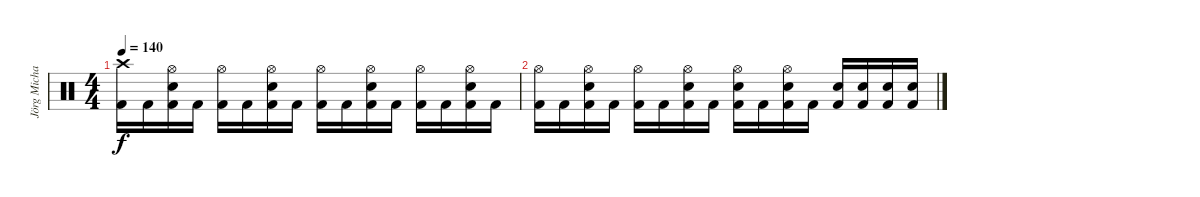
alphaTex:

\track ("Jörg Michael" "Jörg Micha") {instrument percussion}
\staff {score}
\articulation defaults
\ts (4 4)
\tempo 140
\clef neutral
\ks c
("Crash high (hit)" "Kick (hit) 2").16{dy f} "Kick (hit) 2".16 ("Electric Snare (hit)" "Kick (hit) 2" "Hi-Hat (open)").16 "Kick (hit) 2".16 ("Kick (hit) 2" "Hi-Hat (open)").16 "Kick (hit) 2".16 ("Electric Snare (hit)" "Kick (hit) 2" "Hi-Hat (open)").16 "Kick (hit) 2".16 ("Kick (hit) 2" "Hi-Hat (open)").16 "Kick (hit) 2".16 ("Electric Snare (hit)" "Kick (hit) 2" "Hi-Hat (open)").16 "Kick (hit) 2".16 ("Kick (hit) 2" "Hi-Hat (open)").16 "Kick (hit) 2".16 ("Electric Snare (hit)" "Kick (hit) 2" "Hi-Hat (open)").16 "Kick (hit) 2".16 |
("Hi-Hat (open)" "Kick (hit) 2").16 "Kick (hit) 2".16 ("Electric Snare (hit)" "Kick (hit) 2" "Hi-Hat (open)").16 "Kick (hit) 2".16 ("Kick (hit) 2" "Hi-Hat (open)").16 "Kick (hit) 2".16 ("Electric Snare (hit)" "Kick (hit) 2" "Hi-Hat (open)").16 "Kick (hit) 2".16 ("Electric Snare (hit)" "Kick (hit) 2" "Hi-Hat (open)").16 "Kick (hit) 2".16 ("Electric Snare (hit)" "Kick (hit) 2" "Hi-Hat (open)").16 "Kick (hit) 2".16 ("Kick (hit) 2" "Electric Snare (hit)").16 ("Kick (hit) 2" "Electric Snare (hit)").16 ("Kick (hit) 2" "Electric Snare (hit)").16 ("Kick (hit) 2" "Electric Snare (hit)").16
